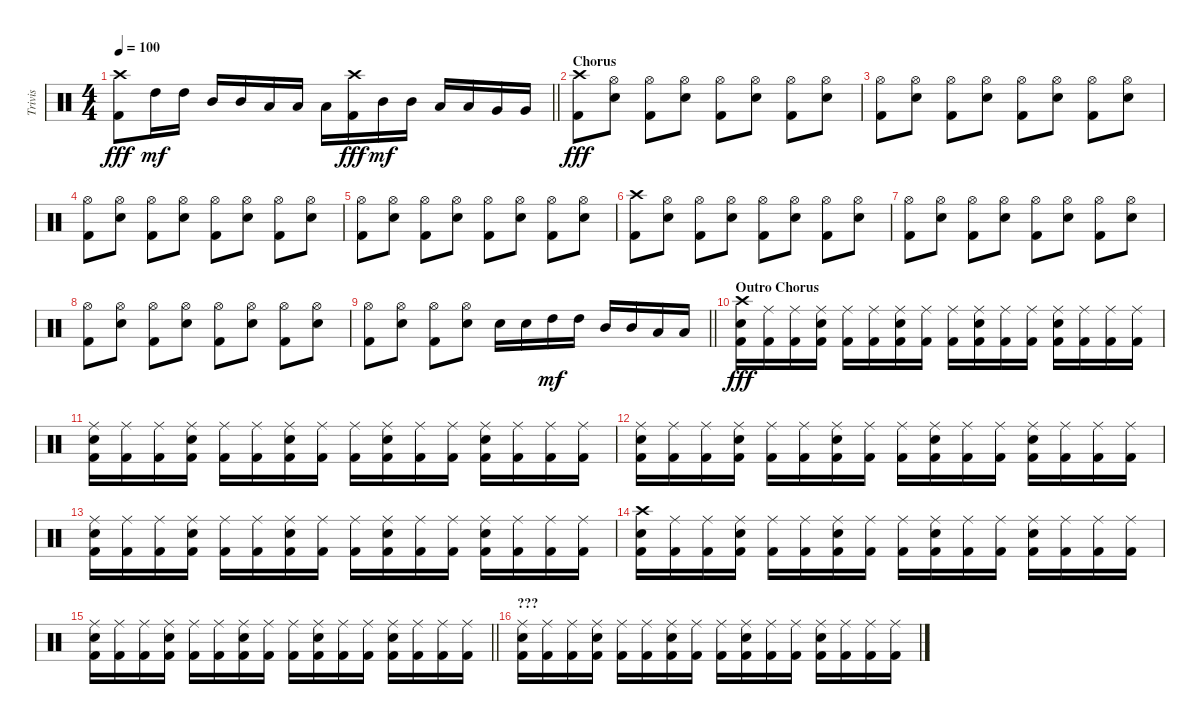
\track ("Trivis" "Trivis") {instrument percussion}
\staff {score}
\articulation defaults
\ts (4 4)
\tempo 100
\clef neutral
\barLineRight lightlight
\ks c
("Crash high (hit)" "Kick (hit) 2").8{dy fff} "High Tom (hit)".16{dy mf} "High Tom (hit)".16 "Mid Tom (hit)".16 "Mid Tom (hit)".16 "Low Tom (hit)".16 "Low Tom (hit)".16 "Low Tom (hit)".16 ("Crash high (hit)" "Kick (hit) 2").16{dy fff} "Mid Tom (hit)".16{dy mf} "Mid Tom (hit)".16 "Low Tom (hit)".16 "Low Tom (hit)".16 "Very Low Tom (hit)".16 "Very Low Tom (hit)".16 |
\section ("" "Chorus")
("Crash high (hit)" "Kick (hit) 2").8{dy fff} ("Hi-Hat (open)" "Snare (hit) 2").8 ("Hi-Hat (open)" "Kick (hit) 2").8 ("Hi-Hat (open)" "Snare (hit) 2").8 ("Hi-Hat (open)" "Kick (hit) 2").8 ("Hi-Hat (open)" "Snare (hit) 2").8 ("Hi-Hat (open)" "Kick (hit) 2").8 ("Hi-Hat (open)" "Snare (hit) 2").8 |
("Hi-Hat (open)" "Kick (hit) 2").8 ("Hi-Hat (open)" "Snare (hit) 2").8 ("Hi-Hat (open)" "Kick (hit) 2").8 ("Hi-Hat (open)" "Snare (hit) 2").8 ("Hi-Hat (open)" "Kick (hit) 2").8 ("Hi-Hat (open)" "Snare (hit) 2").8 ("Hi-Hat (open)" "Kick (hit) 2").8 ("Hi-Hat (open)" "Snare (hit) 2").8 |
("Hi-Hat (open)" "Kick (hit) 2").8 ("Hi-Hat (open)" "Snare (hit) 2").8 ("Hi-Hat (open)" "Kick (hit) 2").8 ("Hi-Hat (open)" "Snare (hit) 2").8 ("Hi-Hat (open)" "Kick (hit) 2").8 ("Hi-Hat (open)" "Snare (hit) 2").8 ("Hi-Hat (open)" "Kick (hit) 2").8 ("Hi-Hat (open)" "Snare (hit) 2").8 |
("Hi-Hat (open)" "Kick (hit) 2").8 ("Hi-Hat (open)" "Snare (hit) 2").8 ("Hi-Hat (open)" "Kick (hit) 2").8 ("Hi-Hat (open)" "Snare (hit) 2").8 ("Hi-Hat (open)" "Kick (hit) 2").8 ("Hi-Hat (open)" "Snare (hit) 2").8 ("Hi-Hat (open)" "Kick (hit) 2").8 ("Hi-Hat (open)" "Snare (hit) 2").8 |
("Crash high (hit)" "Kick (hit) 2").8 ("Hi-Hat (open)" "Snare (hit) 2").8 ("Hi-Hat (open)" "Kick (hit) 2").8 ("Hi-Hat (open)" "Snare (hit) 2").8 ("Hi-Hat (open)" "Kick (hit) 2").8 ("Hi-Hat (open)" "Snare (hit) 2").8 ("Hi-Hat (open)" "Kick (hit) 2").8 ("Hi-Hat (open)" "Snare (hit) 2").8 |
("Hi-Hat (open)" "Kick (hit) 2").8 ("Hi-Hat (open)" "Snare (hit) 2").8 ("Hi-Hat (open)" "Kick (hit) 2").8 ("Hi-Hat (open)" "Snare (hit) 2").8 ("Hi-Hat (open)" "Kick (hit) 2").8 ("Hi-Hat (open)" "Snare (hit) 2").8 ("Hi-Hat (open)" "Kick (hit) 2").8 ("Hi-Hat (open)" "Snare (hit) 2").8 |
("Hi-Hat (open)" "Kick (hit) 2").8 ("Hi-Hat (open)" "Snare (hit) 2").8 ("Hi-Hat (open)" "Kick (hit) 2").8 ("Hi-Hat (open)" "Snare (hit) 2").8 ("Hi-Hat (open)" "Kick (hit) 2").8 ("Hi-Hat (open)" "Snare (hit) 2").8 ("Hi-Hat (open)" "Kick (hit) 2").8 ("Hi-Hat (open)" "Snare (hit) 2").8 |
\barLineRight lightlight
("Hi-Hat (open)" "Kick (hit) 2").8 ("Hi-Hat (open)" "Snare (hit) 2").8 ("Hi-Hat (open)" "Kick (hit) 2").8 ("Hi-Hat (open)" "Snare (hit) 2").8 "Snare (hit) 2".16 "Snare (hit) 2".16 "High Tom (hit)".16{dy mf} "High Tom (hit)".16 "Mid Tom (hit)".16 "Mid Tom (hit)".16 "Low Tom (hit)".16 "Low Tom (hit)".16 |
\section ("" "Outro Chorus")
("Crash high (hit)" "Snare (hit) 2" "Kick (hit) 2").16{dy fff} ("Ride (middle)" "Kick (hit) 2").16 ("Ride (middle)" "Kick (hit) 2").16 ("Ride (middle)" "Snare (hit) 2" "Kick (hit) 2").16 ("Ride (middle)" "Kick (hit) 2").16 ("Ride (middle)" "Kick (hit) 2").16 ("Ride (middle)" "Snare (hit) 2" "Kick (hit) 2").16 ("Ride (middle)" "Kick (hit) 2").16 ("Ride (middle)" "Kick (hit) 2").16 ("Ride (middle)" "Snare (hit) 2" "Kick (hit) 2").16 ("Ride (middle)" "Kick (hit) 2").16 ("Ride (middle)" "Kick (hit) 2").16 ("Ride (middle)" "Snare (hit) 2" "Kick (hit) 2").16 ("Ride (middle)" "Kick (hit) 2").16 ("Ride (middle)" "Kick (hit) 2").16 ("Ride (middle)" "Kick (hit) 2").16 |
("Ride (middle)" "Snare (hit) 2" "Kick (hit) 2").16 ("Ride (middle)" "Kick (hit) 2").16 ("Ride (middle)" "Kick (hit) 2").16 ("Ride (middle)" "Snare (hit) 2" "Kick (hit) 2").16 ("Ride (middle)" "Kick (hit) 2").16 ("Ride (middle)" "Kick (hit) 2").16 ("Ride (middle)" "Snare (hit) 2" "Kick (hit) 2").16 ("Ride (middle)" "Kick (hit) 2").16 ("Ride (middle)" "Kick (hit) 2").16 ("Ride (middle)" "Snare (hit) 2" "Kick (hit) 2").16 ("Ride (middle)" "Kick (hit) 2").16 ("Ride (middle)" "Kick (hit) 2").16 ("Ride (middle)" "Snare (hit) 2" "Kick (hit) 2").16 ("Ride (middle)" "Kick (hit) 2").16 ("Ride (middle)" "Kick (hit) 2").16 ("Ride (middle)" "Kick (hit) 2").16 |
("Ride (middle)" "Snare (hit) 2" "Kick (hit) 2").16 ("Ride (middle)" "Kick (hit) 2").16 ("Ride (middle)" "Kick (hit) 2").16 ("Ride (middle)" "Snare (hit) 2" "Kick (hit) 2").16 ("Ride (middle)" "Kick (hit) 2").16 ("Ride (middle)" "Kick (hit) 2").16 ("Ride (middle)" "Snare (hit) 2" "Kick (hit) 2").16 ("Ride (middle)" "Kick (hit) 2").16 ("Ride (middle)" "Kick (hit) 2").16 ("Ride (middle)" "Snare (hit) 2" "Kick (hit) 2").16 ("Ride (middle)" "Kick (hit) 2").16 ("Ride (middle)" "Kick (hit) 2").16 ("Ride (middle)" "Snare (hit) 2" "Kick (hit) 2").16 ("Ride (middle)" "Kick (hit) 2").16 ("Ride (middle)" "Kick (hit) 2").16 ("Ride (middle)" "Kick (hit) 2").16 |
("Ride (middle)" "Snare (hit) 2" "Kick (hit) 2").16 ("Ride (middle)" "Kick (hit) 2").16 ("Ride (middle)" "Kick (hit) 2").16 ("Ride (middle)" "Snare (hit) 2" "Kick (hit) 2").16 ("Ride (middle)" "Kick (hit) 2").16 ("Ride (middle)" "Kick (hit) 2").16 ("Ride (middle)" "Snare (hit) 2" "Kick (hit) 2").16 ("Ride (middle)" "Kick (hit) 2").16 ("Ride (middle)" "Kick (hit) 2").16 ("Ride (middle)" "Snare (hit) 2" "Kick (hit) 2").16 ("Ride (middle)" "Kick (hit) 2").16 ("Ride (middle)" "Kick (hit) 2").16 ("Ride (middle)" "Snare (hit) 2" "Kick (hit) 2").16 ("Ride (middle)" "Kick (hit) 2").16 ("Ride (middle)" "Kick (hit) 2").16 ("Ride (middle)" "Kick (hit) 2").16 |
("Crash high (hit)" "Snare (hit) 2" "Kick (hit) 2").16 ("Ride (middle)" "Kick (hit) 2").16 ("Ride (middle)" "Kick (hit) 2").16 ("Ride (middle)" "Snare (hit) 2" "Kick (hit) 2").16 ("Ride (middle)" "Kick (hit) 2").16 ("Ride (middle)" "Kick (hit) 2").16 ("Ride (middle)" "Snare (hit) 2" "Kick (hit) 2").16 ("Ride (middle)" "Kick (hit) 2").16 ("Ride (middle)" "Kick (hit) 2").16 ("Ride (middle)" "Snare (hit) 2" "Kick (hit) 2").16 ("Ride (middle)" "Kick (hit) 2").16 ("Ride (middle)" "Kick (hit) 2").16 ("Ride (middle)" "Snare (hit) 2" "Kick (hit) 2").16 ("Ride (middle)" "Kick (hit) 2").16 ("Ride (middle)" "Kick (hit) 2").16 ("Ride (middle)" "Kick (hit) 2").16 |
\barLineRight lightlight
("Ride (middle)" "Snare (hit) 2" "Kick (hit) 2").16 ("Ride (middle)" "Kick (hit) 2").16 ("Ride (middle)" "Kick (hit) 2").16 ("Ride (middle)" "Snare (hit) 2" "Kick (hit) 2").16 ("Ride (middle)" "Kick (hit) 2").16 ("Ride (middle)" "Kick (hit) 2").16 ("Ride (middle)" "Snare (hit) 2" "Kick (hit) 2").16 ("Ride (middle)" "Kick (hit) 2").16 ("Ride (middle)" "Kick (hit) 2").16 ("Ride (middle)" "Snare (hit) 2" "Kick (hit) 2").16 ("Ride (middle)" "Kick (hit) 2").16 ("Ride (middle)" "Kick (hit) 2").16 ("Ride (middle)" "Snare (hit) 2" "Kick (hit) 2").16 ("Ride (middle)" "Kick (hit) 2").16 ("Ride (middle)" "Kick (hit) 2").16 ("Ride (middle)" "Kick (hit) 2").16 |
\section ("" "???")
("Ride (middle)" "Snare (hit) 2" "Kick (hit) 2").16 ("Ride (middle)" "Kick (hit) 2").16 ("Ride (middle)" "Kick (hit) 2").16 ("Ride (middle)" "Snare (hit) 2" "Kick (hit) 2").16 ("Ride (middle)" "Kick (hit) 2").16 ("Ride (middle)" "Kick (hit) 2").16 ("Ride (middle)" "Snare (hit) 2" "Kick (hit) 2").16 ("Ride (middle)" "Kick (hit) 2").16 ("Ride (middle)" "Kick (hit) 2").16 ("Ride (middle)" "Snare (hit) 2" "Kick (hit) 2").16 ("Ride (middle)" "Kick (hit) 2").16 ("Ride (middle)" "Kick (hit) 2").16 ("Ride (middle)" "Snare (hit) 2" "Kick (hit) 2").16 ("Ride (middle)" "Kick (hit) 2").16 ("Ride (middle)" "Kick (hit) 2").16 ("Ride (middle)" "Kick (hit) 2").16
